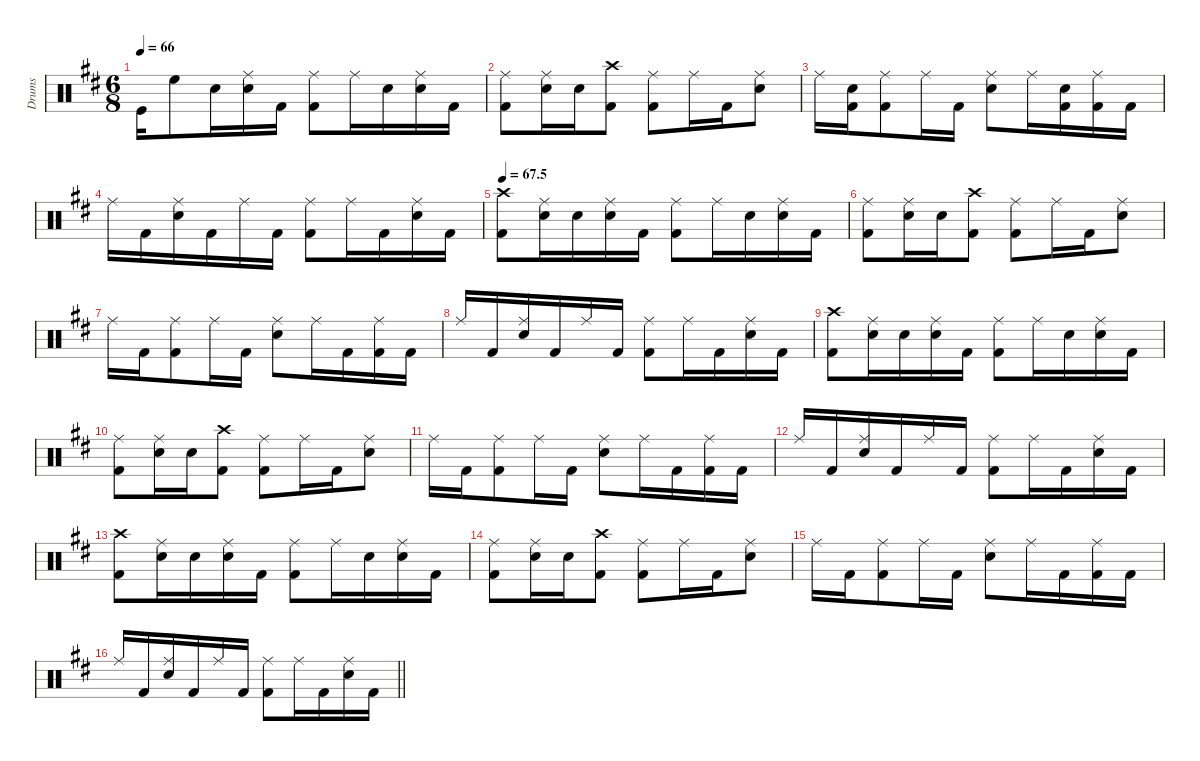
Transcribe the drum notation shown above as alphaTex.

\defaultSystemsLayout 4
\hideDynamics
\bracketExtendMode groupsimilarinstruments
\firstSystemTrackNameMode fullname
\otherSystemsTrackNameOrientation horizontal
\track ("Drums" "drm.") {defaultSystemsLayout 4 instrument percussion}
\staff {score}
\articulation defaults
\ts (6 8)
\tempo 66
\clef neutral
\ks bminor "Kick (hit)"{acc forcenatural}.16{dy f beam Down} "High Floor Tom (hit)"{acc forcenatural}.8{dy mf beam Down} "Snare (hit) 2"{acc forcenatural}.16{dy ff beam Down}
("Snare (hit) 2"{acc forcenatural} "Ride (middle)"{acc #}).16{beam Down} "Kick (hit) 2"{acc forcenatural}.16{beam Down} ("Ride (middle)"{acc #} "Kick (hit) 2"{acc forcenatural}).8{beam Down} "Ride (middle)"{acc #}.16{beam Down} "Snare (hit) 2"{acc forcenatural}.16{beam Down} ("Ride (middle)"{acc #} "Snare (hit) 2"{acc forcenatural}).16{beam Down} "Kick (hit) 2"{acc forcenatural}.16{beam Down} |
("Kick (hit) 2"{acc forcenatural} "Ride (middle)"{acc #}).8{beam Down} ("Snare (hit) 2"{acc forcenatural} "Ride (middle)"{acc #}).16{beam Down} "Snare (hit) 2"{acc forcenatural}.16{beam Down} ("Kick (hit) 2"{acc forcenatural} "Crash high (hit)"{acc #}).8{beam Down} ("Ride (middle)"{acc #} "Kick (hit) 2"{acc forcenatural}).8{beam Down} "Ride (middle)"{acc #}.16{beam Down} "Kick (hit) 2"{acc forcenatural}.16{beam Down} ("Ride (middle)"{acc #} "Snare (hit) 2"{acc forcenatural}).8{beam Down} |
"Ride (middle)"{acc #}.16{beam Down} ("Snare (hit) 2"{acc forcenatural} "Kick (hit) 2"{acc forcenatural}).16{beam Down} ("Ride (middle)"{acc #} "Kick (hit) 2"{acc forcenatural}).8{beam Down} "Ride (middle)"{acc #}.16{beam Down} "Kick (hit) 2"{acc forcenatural}.16{beam Down} ("Ride (middle)"{acc #} "Snare (hit) 2"{acc forcenatural}).8{beam Down} "Ride (middle)"{acc #}.16{beam Down} ("Snare (hit) 2"{acc forcenatural} "Kick (hit) 2"{acc forcenatural}).16{beam Down} ("Kick (hit) 2"{acc forcenatural} "Ride (middle)"{acc #}).16{beam Down} "Kick (hit) 2"{acc forcenatural}.16{beam Down} |
"Ride (middle)"{acc #}.16{beam Down} "Kick (hit) 2"{acc forcenatural}.16{beam Down} ("Ride (middle)"{acc #} "Snare (hit) 2"{acc forcenatural}).16{beam Down} "Kick (hit) 2"{acc forcenatural}.16{beam Down} "Ride (middle)"{acc #}.16{beam Down} "Kick (hit) 2"{acc forcenatural}.16{beam Down} ("Ride (middle)"{acc #} "Kick (hit) 2"{acc forcenatural}).8{beam Down} "Ride (middle)"{acc #}.16{beam Down} "Kick (hit) 2"{acc forcenatural}.16{beam Down} ("Ride (middle)"{acc #} "Snare (hit) 2"{acc forcenatural}).16{beam Down} "Kick (hit) 2"{acc forcenatural}.16{beam Down} |
\tempo
67.5 ("Kick (hit) 2"{acc forcenatural} "Crash high (hit)"{acc #}).8{beam Down} ("Snare (hit) 2"{acc forcenatural} "Ride (middle)"{acc #}).16{beam Down} "Snare (hit) 2"{acc forcenatural}.16{beam Down} ("Snare (hit) 2"{acc forcenatural} "Ride (middle)"{acc #}).16{beam Down} "Kick (hit) 2"{acc forcenatural}.16{beam Down} ("Ride (middle)"{acc #} "Kick (hit) 2"{acc forcenatural}).8{beam Down} "Ride (middle)"{acc #}.16{beam Down} "Snare (hit) 2"{acc forcenatural}.16{beam Down} ("Ride (middle)"{acc #} "Snare (hit) 2"{acc forcenatural}).16{beam Down} "Kick (hit) 2"{acc forcenatural}.16{beam Down} |
("Kick (hit) 2"{acc forcenatural} "Ride (middle)"{acc #}).8{beam Down} ("Snare (hit) 2"{acc forcenatural} "Ride (middle)"{acc #}).16{beam Down} "Snare (hit) 2"{acc forcenatural}.16{beam Down} ("Kick (hit) 2"{acc forcenatural} "Crash high (hit)"{acc #}).8{beam Down} ("Ride (middle)"{acc #} "Kick (hit) 2"{acc forcenatural}).8{beam Down} "Ride (middle)"{acc #}.16{beam Down} "Kick (hit) 2"{acc forcenatural}.16{beam Down} ("Ride (middle)"{acc #} "Snare (hit) 2"{acc forcenatural}).8{beam Down} |
"Ride (middle)"{acc #}.16{beam Down} "Kick (hit) 2"{acc forcenatural}.16{beam Down} ("Ride (middle)"{acc #} "Kick (hit) 2"{acc forcenatural}).8{beam Down} "Ride (middle)"{acc #}.16{beam Down} "Kick (hit) 2"{acc forcenatural}.16{beam Down} ("Ride (middle)"{acc #} "Snare (hit) 2"{acc forcenatural}).8{beam Down} "Ride (middle)"{acc #}.16{beam Down} "Kick (hit) 2"{acc forcenatural}.16{beam Down} ("Kick (hit) 2"{acc forcenatural} "Ride (middle)"{acc #}).16{beam Down} "Kick (hit) 2"{acc forcenatural}.16{beam Down} |
"Ride (middle)"{acc #}.16{beam Up} "Kick (hit) 2"{acc forcenatural}.16{beam Up} ("Ride (middle)"{acc #} "Snare (hit) 2"{acc forcenatural}).16{beam Up} "Kick (hit) 2"{acc forcenatural}.16{beam Up} "Ride (middle)"{acc #}.16{beam Up} "Kick (hit) 2"{acc forcenatural}.16{beam Up} ("Ride (middle)"{acc #} "Kick (hit) 2"{acc forcenatural}).8{beam Down} "Ride (middle)"{acc #}.16{beam Down} "Kick (hit) 2"{acc forcenatural}.16{beam Down} ("Ride (middle)"{acc #} "Snare (hit) 2"{acc forcenatural}).16{beam Down} "Kick (hit) 2"{acc forcenatural}.16{beam Down} |
("Kick (hit) 2"{acc forcenatural} "Crash high (hit)"{acc #}).8{beam Down} ("Snare (hit) 2"{acc forcenatural} "Ride (middle)"{acc #}).16{beam Down} "Snare (hit) 2"{acc forcenatural}.16{beam Down} ("Snare (hit) 2"{acc forcenatural} "Ride (middle)"{acc #}).16{beam Down} "Kick (hit) 2"{acc forcenatural}.16{beam Down} ("Ride (middle)"{acc #} "Kick (hit) 2"{acc forcenatural}).8{beam Down} "Ride (middle)"{acc #}.16{beam Down} "Snare (hit) 2"{acc forcenatural}.16{beam Down} ("Ride (middle)"{acc #} "Snare (hit) 2"{acc forcenatural}).16{beam Down} "Kick (hit) 2"{acc forcenatural}.16{beam Down} |
("Kick (hit) 2"{acc forcenatural} "Ride (middle)"{acc #}).8{beam Down} ("Snare (hit) 2"{acc forcenatural} "Ride (middle)"{acc #}).16{beam Down} "Snare (hit) 2"{acc forcenatural}.16{beam Down} ("Kick (hit) 2"{acc forcenatural} "Crash high (hit)"{acc #}).8{beam Down} ("Ride (middle)"{acc #} "Kick (hit) 2"{acc forcenatural}).8{beam Down} "Ride (middle)"{acc #}.16{beam Down} "Kick (hit) 2"{acc forcenatural}.16{beam Down} ("Ride (middle)"{acc #} "Snare (hit) 2"{acc forcenatural}).8{beam Down} |
"Ride (middle)"{acc #}.16{beam Down} "Kick (hit) 2"{acc forcenatural}.16{beam Down} ("Ride (middle)"{acc #} "Kick (hit) 2"{acc forcenatural}).8{beam Down} "Ride (middle)"{acc #}.16{beam Down} "Kick (hit) 2"{acc forcenatural}.16{beam Down} ("Ride (middle)"{acc #} "Snare (hit) 2"{acc forcenatural}).8{beam Down} "Ride (middle)"{acc #}.16{beam Down} "Kick (hit) 2"{acc forcenatural}.16{beam Down} ("Kick (hit) 2"{acc forcenatural} "Ride (middle)"{acc #}).16{beam Down} "Kick (hit) 2"{acc forcenatural}.16{beam Down} |
"Ride (middle)"{acc #}.16{beam Up} "Kick (hit) 2"{acc forcenatural}.16{beam Up} ("Ride (middle)"{acc #} "Snare (hit) 2"{acc forcenatural}).16{beam Up} "Kick (hit) 2"{acc forcenatural}.16{beam Up} "Ride (middle)"{acc #}.16{beam Up} "Kick (hit) 2"{acc forcenatural}.16{beam Up} ("Ride (middle)"{acc #} "Kick (hit) 2"{acc forcenatural}).8{beam Down} "Ride (middle)"{acc #}.16{beam Down} "Kick (hit) 2"{acc forcenatural}.16{beam Down} ("Ride (middle)"{acc #} "Snare (hit) 2"{acc forcenatural}).16{beam Down} "Kick (hit) 2"{acc forcenatural}.16{beam Down} |
("Kick (hit) 2"{acc forcenatural} "Crash high (hit)"{acc #}).8{beam Down} ("Snare (hit) 2"{acc forcenatural} "Ride (middle)"{acc #}).16{beam Down} "Snare (hit) 2"{acc forcenatural}.16{beam Down} ("Snare (hit) 2"{acc forcenatural} "Ride (middle)"{acc #}).16{beam Down} "Kick (hit) 2"{acc forcenatural}.16{beam Down} ("Ride (middle)"{acc #} "Kick (hit) 2"{acc forcenatural}).8{beam Down} "Ride (middle)"{acc #}.16{beam Down} "Snare (hit) 2"{acc forcenatural}.16{beam Down} ("Ride (middle)"{acc #} "Snare (hit) 2"{acc forcenatural}).16{beam Down} "Kick (hit) 2"{acc forcenatural}.16{beam Down} |
("Kick (hit) 2"{acc forcenatural} "Ride (middle)"{acc #}).8{beam Down} ("Snare (hit) 2"{acc forcenatural} "Ride (middle)"{acc #}).16{beam Down} "Snare (hit) 2"{acc forcenatural}.16{beam Down} ("Kick (hit) 2"{acc forcenatural} "Crash high (hit)"{acc #}).8{beam Down} ("Ride (middle)"{acc #} "Kick (hit) 2"{acc forcenatural}).8{beam Down} "Ride (middle)"{acc #}.16{beam Down} "Kick (hit) 2"{acc forcenatural}.16{beam Down} ("Ride (middle)"{acc #} "Snare (hit) 2"{acc forcenatural}).8{beam Down} |
"Ride (middle)"{acc #}.16{beam Down} "Kick (hit) 2"{acc forcenatural}.16{beam Down} ("Ride (middle)"{acc #} "Kick (hit) 2"{acc forcenatural}).8{beam Down} "Ride (middle)"{acc #}.16{beam Down} "Kick (hit) 2"{acc forcenatural}.16{beam Down} ("Ride (middle)"{acc #} "Snare (hit) 2"{acc forcenatural}).8{beam Down} "Ride (middle)"{acc #}.16{beam Down} "Kick (hit) 2"{acc forcenatural}.16{beam Down} ("Kick (hit) 2"{acc forcenatural} "Ride (middle)"{acc #}).16{beam Down} "Kick (hit) 2"{acc forcenatural}.16{beam Down} |
\barLineRight lightlight "Ride (middle)"{acc #}.16{beam Up} "Kick (hit) 2"{acc forcenatural}.16{beam Up}
("Ride (middle)"{acc #} "Snare (hit) 2"{acc forcenatural}).16{beam Up} "Kick (hit) 2"{acc forcenatural}.16{beam Up} "Ride (middle)"{acc #}.16{beam Up} "Kick (hit) 2"{acc forcenatural}.16{beam Up} ("Ride (middle)"{acc #} "Kick (hit) 2"{acc forcenatural}).8{beam Down} "Ride (middle)"{acc #}.16{beam Down} "Kick (hit) 2"{acc forcenatural}.16{beam Down} ("Ride (middle)"{acc #} "Snare (hit) 2"{acc forcenatural}).16{beam Down} "Kick (hit) 2"{acc forcenatural}.16{beam Down}
